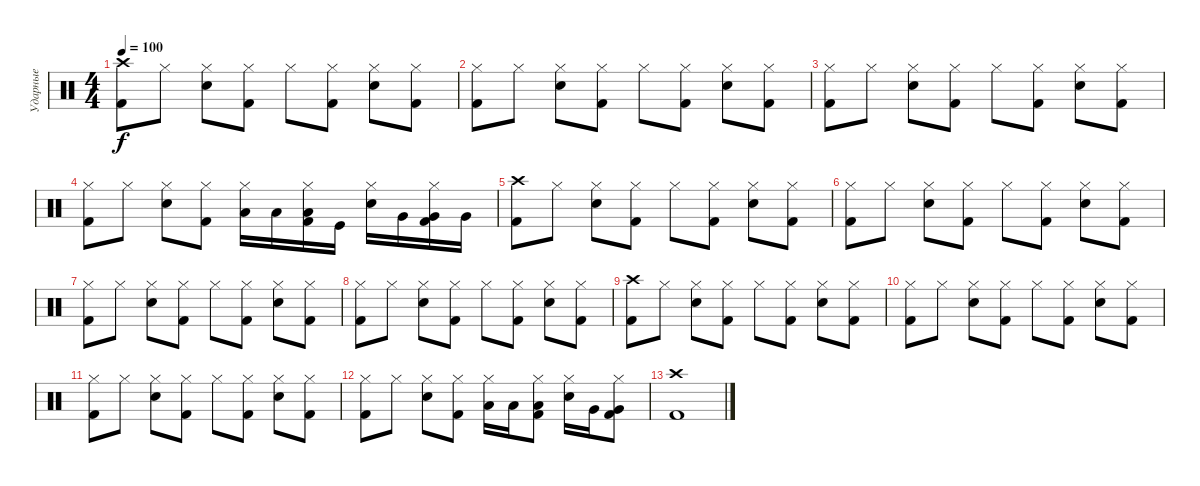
\track ("Ударные" "Ударные") {instrument percussion}
\staff {score}
\articulation defaults
\ts (4 4)
\tempo 100
\clef neutral
\ks c
("Crash high (hit)" "Kick (hit) 2").8{dy f} "Hi-Hat (closed)".8 ("Hi-Hat (closed)" "Snare (hit) 2").8 ("Hi-Hat (closed)" "Kick (hit) 2").8 "Hi-Hat (closed)".8 ("Hi-Hat (closed)" "Kick (hit) 2").8 ("Hi-Hat (closed)" "Snare (hit) 2").8 ("Hi-Hat (closed)" "Kick (hit) 2").8 |
("Hi-Hat (closed)" "Kick (hit) 2").8 "Hi-Hat (closed)".8 ("Hi-Hat (closed)" "Snare (hit) 2").8 ("Hi-Hat (closed)" "Kick (hit) 2").8 "Hi-Hat (closed)".8 ("Hi-Hat (closed)" "Kick (hit) 2").8 ("Hi-Hat (closed)" "Snare (hit) 2").8 ("Hi-Hat (closed)" "Kick (hit) 2").8 |
("Hi-Hat (closed)" "Kick (hit) 2").8 "Hi-Hat (closed)".8 ("Hi-Hat (closed)" "Snare (hit) 2").8 ("Hi-Hat (closed)" "Kick (hit) 2").8 "Hi-Hat (closed)".8 ("Hi-Hat (closed)" "Kick (hit) 2").8 ("Hi-Hat (closed)" "Snare (hit) 2").8 ("Hi-Hat (closed)" "Kick (hit) 2").8 |
("Hi-Hat (closed)" "Kick (hit) 2").8 "Hi-Hat (closed)".8 ("Hi-Hat (closed)" "Snare (hit) 2").8 ("Hi-Hat (closed)" "Kick (hit) 2").8 ("Hi-Hat (closed)" "Low Tom (hit)").16 "Low Tom (hit)".16 ("Hi-Hat (closed)" "Low Tom (hit)" "Kick (hit) 2").16 "Kick (hit)".16 ("Hi-Hat (closed)" "Snare (hit) 2").16 "Very Low Tom (hit)".16 ("Hi-Hat (closed)" "Very Low Tom (hit)" "Kick (hit) 2").16 "Very Low Tom (hit)".16 |
("Crash high (hit)" "Kick (hit) 2").8 "Hi-Hat (closed)".8 ("Hi-Hat (closed)" "Snare (hit) 2").8 ("Hi-Hat (closed)" "Kick (hit) 2").8 "Hi-Hat (closed)".8 ("Hi-Hat (closed)" "Kick (hit) 2").8 ("Hi-Hat (closed)" "Snare (hit) 2").8 ("Hi-Hat (closed)" "Kick (hit) 2").8 |
("Hi-Hat (closed)" "Kick (hit) 2").8 "Hi-Hat (closed)".8 ("Hi-Hat (closed)" "Snare (hit) 2").8 ("Hi-Hat (closed)" "Kick (hit) 2").8 "Hi-Hat (closed)".8 ("Hi-Hat (closed)" "Kick (hit) 2").8 ("Hi-Hat (closed)" "Snare (hit) 2").8 ("Hi-Hat (closed)" "Kick (hit) 2").8 |
("Hi-Hat (closed)" "Kick (hit) 2").8 "Hi-Hat (closed)".8 ("Hi-Hat (closed)" "Snare (hit) 2").8 ("Hi-Hat (closed)" "Kick (hit) 2").8 "Hi-Hat (closed)".8 ("Hi-Hat (closed)" "Kick (hit) 2").8 ("Hi-Hat (closed)" "Snare (hit) 2").8 ("Hi-Hat (closed)" "Kick (hit) 2").8 |
("Hi-Hat (closed)" "Kick (hit) 2").8 "Hi-Hat (closed)".8 ("Hi-Hat (closed)" "Snare (hit) 2").8 ("Hi-Hat (closed)" "Kick (hit) 2").8 "Hi-Hat (closed)".8 ("Hi-Hat (closed)" "Kick (hit) 2").8 ("Hi-Hat (closed)" "Snare (hit) 2").8 ("Hi-Hat (closed)" "Kick (hit) 2").8 |
("Crash high (hit)" "Kick (hit) 2").8 "Hi-Hat (closed)".8 ("Hi-Hat (closed)" "Snare (hit) 2").8 ("Hi-Hat (closed)" "Kick (hit) 2").8 "Hi-Hat (closed)".8 ("Hi-Hat (closed)" "Kick (hit) 2").8 ("Hi-Hat (closed)" "Snare (hit) 2").8 ("Hi-Hat (closed)" "Kick (hit) 2").8 |
("Hi-Hat (closed)" "Kick (hit) 2").8 "Hi-Hat (closed)".8 ("Hi-Hat (closed)" "Snare (hit) 2").8 ("Hi-Hat (closed)" "Kick (hit) 2").8 "Hi-Hat (closed)".8 ("Hi-Hat (closed)" "Kick (hit) 2").8 ("Hi-Hat (closed)" "Snare (hit) 2").8 ("Hi-Hat (closed)" "Kick (hit) 2").8 |
("Hi-Hat (closed)" "Kick (hit) 2").8 "Hi-Hat (closed)".8 ("Hi-Hat (closed)" "Snare (hit) 2").8 ("Hi-Hat (closed)" "Kick (hit) 2").8 "Hi-Hat (closed)".8 ("Hi-Hat (closed)" "Kick (hit) 2").8 ("Hi-Hat (closed)" "Snare (hit) 2").8 ("Hi-Hat (closed)" "Kick (hit) 2").8 |
("Hi-Hat (closed)" "Kick (hit) 2").8 "Hi-Hat (closed)".8 ("Hi-Hat (closed)" "Snare (hit) 2").8 ("Hi-Hat (closed)" "Kick (hit) 2").8 ("Hi-Hat (closed)" "Low Tom (hit)").16 "Low Tom (hit)".16 ("Hi-Hat (closed)" "Low Tom (hit)" "Kick (hit) 2").8 ("Hi-Hat (closed)" "Snare (hit) 2").16 "Very Low Tom (hit)".16 ("Hi-Hat (closed)" "Very Low Tom (hit)" "Kick (hit) 2").8 |
("Crash high (hit)" "Kick (hit) 2").1
